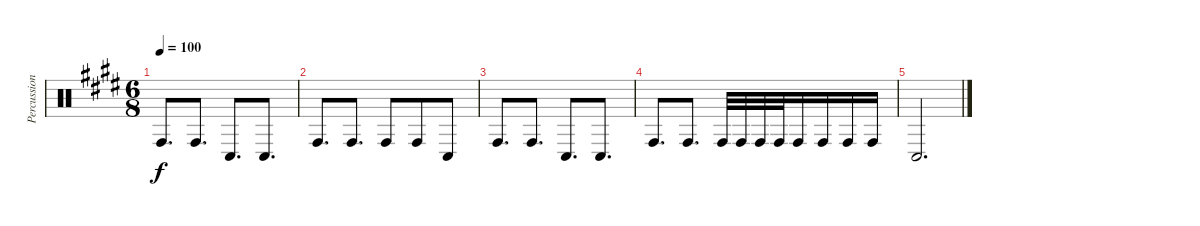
\track ("Percussion" "Percussion") {instrument percussion}
\staff {score}
\articulation defaults
\ts (6 8)
\tempo 100
\clef neutral
\ks c#minor "Conga high (hit)".8{d dy f} "Conga high (hit)".8{d} "Conga low (hit)".8{d} "Conga low (hit)".8{d}
|
"Conga high (hit)".8{d} "Conga high (hit)".8{d} "Conga high (hit)".8 "Conga high (hit)".8 "Conga low (hit)".8 |
"Conga high (hit)".8{d} "Conga high (hit)".8{d} "Conga low (hit)".8{d} "Conga low (hit)".8{d} |
"Conga high (hit)".8{d} "Conga high (hit)".8{d} "Conga high (hit)".32 "Conga high (hit)".32 "Conga high (hit)".32 "Conga high (hit)".32 "Conga high (hit)".16 "Conga high (hit)".16 "Conga high (hit)".16 "Conga high (hit)".16 |
"Conga low (hit)".2{d}
